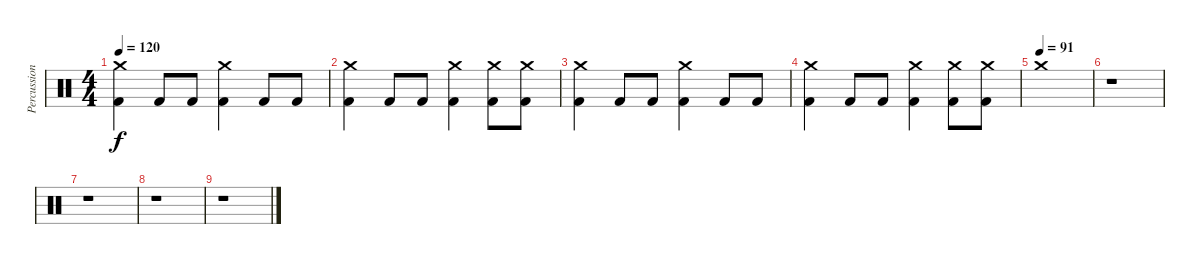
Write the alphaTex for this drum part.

\track ("Percussions" "Percussion") {instrument percussion}
\staff {score}
\articulation defaults
\ts (4 4)
\tempo 120
\clef neutral
\ks c
("Crash medium (hit)" "Kick (hit) 2").4{dy f} "Kick (hit) 2".8 "Kick (hit) 2".8 ("Crash medium (hit)" "Kick (hit) 2").4 "Kick (hit) 2".8 "Kick (hit) 2".8 |
("Crash medium (hit)" "Kick (hit) 2").4 "Kick (hit) 2".8 "Kick (hit) 2".8 ("Crash medium (hit)" "Kick (hit) 2").4 ("Crash medium (hit)" "Kick (hit) 2").8 ("Crash medium (hit)" "Kick (hit) 2").8 |
("Crash medium (hit)" "Kick (hit) 2").4 "Kick (hit) 2".8 "Kick (hit) 2".8 ("Crash medium (hit)" "Kick (hit) 2").4 "Kick (hit) 2".8 "Kick (hit) 2".8 |
("Crash medium (hit)" "Kick (hit) 2").4 "Kick (hit) 2".8 "Kick (hit) 2".8 ("Crash medium (hit)" "Kick (hit) 2").4 ("Crash medium (hit)" "Kick (hit) 2").8 ("Crash medium (hit)" "Kick (hit) 2").8 |
\tempo (91)
"Crash medium (hit)".1 |
r.1 |
r.1 |
r.1 |
r.1
